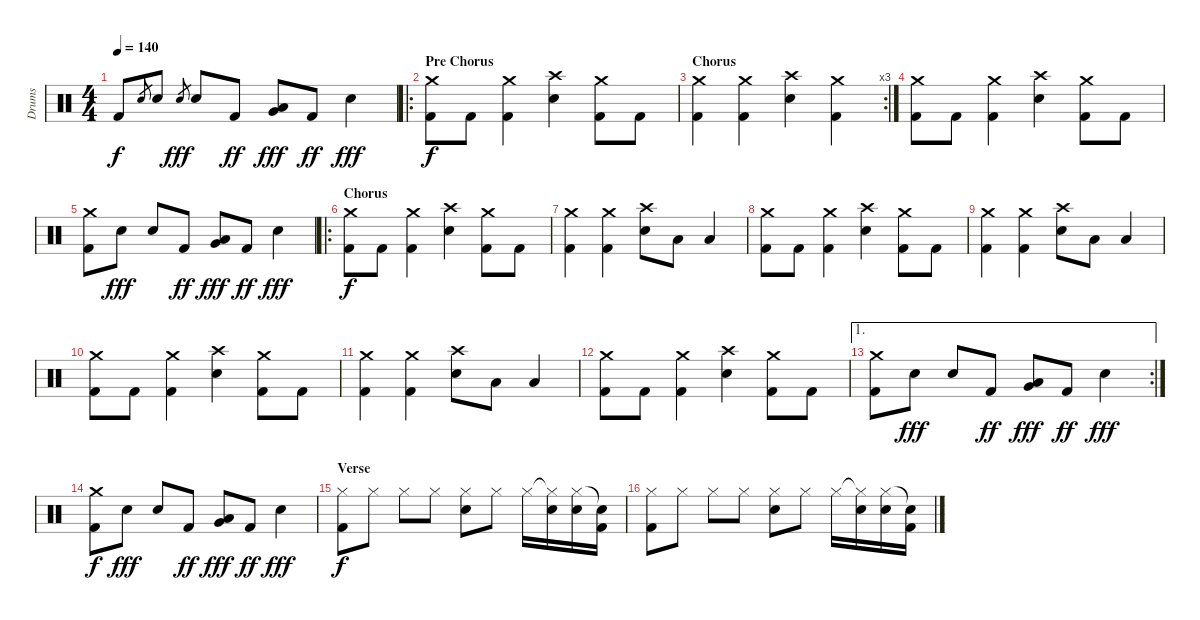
\track ("Drums" "Drums") {instrument percussion}
\staff {score}
\articulation defaults
\ts (4 4)
\tempo 140
\clef neutral
\ks c "Kick (hit) 2".8{dy f} "Electric Snare (hit)".8{gr} "Electric Snare (hit)".8 "Electric Snare (hit)".8{gr dy fff} "Electric Snare (hit)".8 "Kick (hit) 2".8{dy ff}
("Very Low Tom (hit)" "Low Tom (hit)").8{dy fff} "Kick (hit) 2".8{dy ff} "Electric Snare (hit)".4{dy fff} |
\ro
\section ("" "Pre Chorus")
("Crash medium (hit)" "Kick (hit) 2").8{dy f} "Kick (hit) 2".8 ("Crash medium (hit)" "Kick (hit) 2").4 ("Crash high (hit)" "Electric Snare (hit)").4 ("Crash medium (hit)" "Kick (hit) 2").8 "Kick (hit) 2".8 |
\rc 3
\section ("" "Chorus")
("Crash medium (hit)" "Kick (hit) 2").4 ("Crash medium (hit)" "Kick (hit) 2").4 ("Crash high (hit)" "Electric Snare (hit)").4 ("Crash medium (hit)" "Kick (hit) 2").4 |
("Crash medium (hit)" "Kick (hit) 2").8 "Kick (hit) 2".8 ("Crash medium (hit)" "Kick (hit) 2").4 ("Crash high (hit)" "Electric Snare (hit)").4 ("Crash medium (hit)" "Kick (hit) 2").8 "Kick (hit) 2".8 |
("Crash medium (hit)" "Kick (hit) 2").8 "Electric Snare (hit)".8{dy fff} "Electric Snare (hit)".8 "Kick (hit) 2".8{dy ff} ("Very Low Tom (hit)" "Low Tom (hit)").8{dy fff} "Kick (hit) 2".8{dy ff} "Electric Snare (hit)".4{dy fff} |
\ro
\section ("" "Chorus")
("Crash medium (hit)" "Kick (hit) 2").8{dy f} "Kick (hit) 2".8 ("Crash medium (hit)" "Kick (hit) 2").4 ("Crash high (hit)" "Electric Snare (hit)").4 ("Crash medium (hit)" "Kick (hit) 2").8 "Kick (hit) 2".8 |
("Crash medium (hit)" "Kick (hit) 2").4 ("Crash medium (hit)" "Kick (hit) 2").4 ("Crash high (hit)" "Electric Snare (hit)").8 "Low Tom (hit)".8 "Low Tom (hit)".4 |
("Crash medium (hit)" "Kick (hit) 2").8 "Kick (hit) 2".8 ("Crash medium (hit)" "Kick (hit) 2").4 ("Crash high (hit)" "Electric Snare (hit)").4 ("Crash medium (hit)" "Kick (hit) 2").8 "Kick (hit) 2".8 |
("Crash medium (hit)" "Kick (hit) 2").4 ("Crash medium (hit)" "Kick (hit) 2").4 ("Crash high (hit)" "Electric Snare (hit)").8 "Low Tom (hit)".8 "Low Tom (hit)".4 |
("Crash medium (hit)" "Kick (hit) 2").8 "Kick (hit) 2".8 ("Crash medium (hit)" "Kick (hit) 2").4 ("Crash high (hit)" "Electric Snare (hit)").4 ("Crash medium (hit)" "Kick (hit) 2").8 "Kick (hit) 2".8 |
("Crash medium (hit)" "Kick (hit) 2").4 ("Crash medium (hit)" "Kick (hit) 2").4 ("Crash high (hit)" "Electric Snare (hit)").8 "Low Tom (hit)".8 "Low Tom (hit)".4 |
("Crash medium (hit)" "Kick (hit) 2").8 "Kick (hit) 2".8 ("Crash medium (hit)" "Kick (hit) 2").4 ("Crash high (hit)" "Electric Snare (hit)").4 ("Crash medium (hit)" "Kick (hit) 2").8 "Kick (hit) 2".8 |
\ae 1
\rc 2
("Crash medium (hit)" "Kick (hit) 2").8 "Electric Snare (hit)".8{dy fff} "Electric Snare (hit)".8 "Kick (hit) 2".8{dy ff} ("Very Low Tom (hit)" "Low Tom (hit)").8{dy fff} "Kick (hit) 2".8{dy ff} "Electric Snare (hit)".4{dy fff} |
("Crash medium (hit)" "Kick (hit) 2").8{dy f} "Electric Snare (hit)".8{dy fff} "Electric Snare (hit)".8 "Kick (hit) 2".8{dy ff} ("Very Low Tom (hit)" "Low Tom (hit)").8{dy fff} "Kick (hit) 2".8{dy ff} "Electric Snare (hit)".4{dy fff} |
\section ("" "Verse")
("Hi-Hat (closed)" "Kick (hit) 2").8{dy f} "Hi-Hat (closed)".8 "Hi-Hat (closed)".8 "Hi-Hat (closed)".8 ("Hi-Hat (closed)" "Electric Snare (hit)").8 "Hi-Hat (closed)".8 "Hi-Hat (closed)".16 ("Hi-Hat (closed)"{t} "Electric Snare (hit)").16 ("Hi-Hat (closed)" "Electric Snare (hit)").16 ("Snare (hit)"{t} "Kick (hit) 2").16 |
("Hi-Hat (closed)" "Kick (hit) 2").8 "Hi-Hat (closed)".8 "Hi-Hat (closed)".8 "Hi-Hat (closed)".8 ("Hi-Hat (closed)" "Electric Snare (hit)").8 "Hi-Hat (closed)".8 "Hi-Hat (closed)".16 ("Hi-Hat (closed)"{t} "Electric Snare (hit)").16 ("Hi-Hat (closed)" "Electric Snare (hit)").16 ("Snare (hit)"{t} "Kick (hit) 2").16
